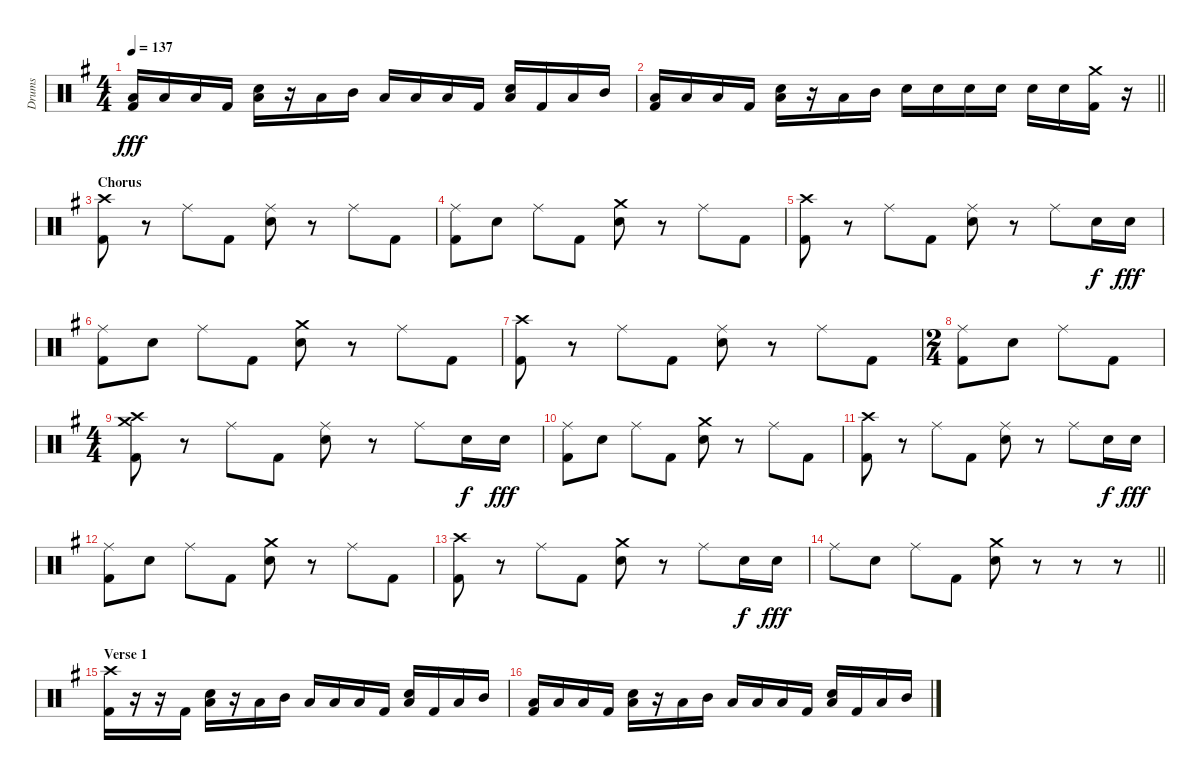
\track ("Drums" "Drums") {instrument percussion}
\staff {score}
\articulation defaults
\ts (4 4)
\tempo 137
\clef neutral
\ks eminor
("Low Floor Tom (hit)" "Kick (hit) 2").16{dy fff} "Low Tom (hit)".16 "Low Floor Tom (hit)".16 "Kick (hit) 2".16 ("Electric Snare (hit)" "Low Floor Tom (hit)").16 r.16 "Low Floor Tom (hit)".16 "Mid Tom (hit)".16 "Low Floor Tom (hit)".16 "Low Tom (hit)".16 "Low Floor Tom (hit)".16 "Kick (hit) 2".16 ("Electric Snare (hit)" "Low Floor Tom (hit)").16 "Kick (hit) 2".16 "Low Floor Tom (hit)".16 "Mid Tom (hit)".16 |
\barLineRight lightlight
("Low Floor Tom (hit)" "Kick (hit) 2").16 "Low Tom (hit)".16 "Low Floor Tom (hit)".16 "Kick (hit) 2".16 ("Electric Snare (hit)" "Low Floor Tom (hit)").16 r.16 "Low Floor Tom (hit)".16 "Mid Tom (hit)".16 "Electric Snare (hit)".16 "Electric Snare (hit)".16 "Electric Snare (hit)".16 "Electric Snare (hit)".16 "Electric Snare (hit)".16 "Electric Snare (hit)".16 ("Crash medium (hit)" "Kick (hit) 2").16 r.16 |
\section ("" "Chorus")
("Crash high (hit)" "Kick (hit) 2").8 r.8 "Ride (middle)".8 "Kick (hit) 2".8 ("Ride (middle)" "Electric Snare (hit)").8 r.8 "Ride (middle)".8 "Kick (hit) 2".8 |
("Ride (middle)" "Kick (hit) 2").8 "Electric Snare (hit)".8 "Ride (middle)".8 "Kick (hit) 2".8 ("Crash medium (hit)" "Electric Snare (hit)").8 r.8 "Ride (middle)".8 "Kick (hit) 2".8 |
("Crash high (hit)" "Kick (hit) 2").8 r.8 "Ride (middle)".8 "Kick (hit) 2".8 ("Ride (middle)" "Electric Snare (hit)").8 r.8 "Ride (middle)".8 "Electric Snare (hit)".16{dy f} "Electric Snare (hit)".16{dy fff} |
("Ride (middle)" "Kick (hit) 2").8 "Electric Snare (hit)".8 "Ride (middle)".8 "Kick (hit) 2".8 ("Crash medium (hit)" "Electric Snare (hit)").8 r.8 "Ride (middle)".8 "Kick (hit) 2".8 |
("Crash high (hit)" "Kick (hit) 2").8 r.8 "Ride (middle)".8 "Kick (hit) 2".8 ("Ride (middle)" "Electric Snare (hit)").8 r.8 "Ride (middle)".8 "Kick (hit) 2".8 |
\ts (2 4)
("Ride (middle)" "Kick (hit) 2").8 "Electric Snare (hit)".8 "Ride (middle)".8 "Kick (hit) 2".8 |
\ts (4 4)
("Crash medium (hit)" "Crash high (hit)" "Kick (hit) 2").8 r.8 "Ride (middle)".8 "Kick (hit) 2".8 ("Ride (middle)" "Electric Snare (hit)").8 r.8 "Ride (middle)".8 "Electric Snare (hit)".16{dy f} "Electric Snare (hit)".16{dy fff} |
("Ride (middle)" "Kick (hit) 2").8 "Electric Snare (hit)".8 "Ride (middle)".8 "Kick (hit) 2".8 ("Crash medium (hit)" "Electric Snare (hit)").8 r.8 "Ride (middle)".8 "Kick (hit) 2".8 |
("Crash high (hit)" "Kick (hit) 2").8 r.8 "Ride (middle)".8 "Kick (hit) 2".8 ("Ride (middle)" "Electric Snare (hit)").8 r.8 "Ride (middle)".8 "Electric Snare (hit)".16{dy f} "Electric Snare (hit)".16{dy fff} |
("Ride (middle)" "Kick (hit) 2").8 "Electric Snare (hit)".8 "Ride (middle)".8 "Kick (hit) 2".8 ("Crash medium (hit)" "Electric Snare (hit)").8 r.8 "Ride (middle)".8 "Kick (hit) 2".8 |
("Crash high (hit)" "Kick (hit) 2").8 r.8 "Ride (middle)".8 "Kick (hit) 2".8 ("Crash medium (hit)" "Electric Snare (hit)").8 r.8 "Ride (middle)".8 "Electric Snare (hit)".16{dy f} "Electric Snare (hit)".16{dy fff} |
\barLineRight lightlight "Ride (middle)".8 "Electric Snare (hit)".8 "Ride (middle)".8 "Kick (hit) 2".8
("Crash medium (hit)" "Electric Snare (hit)").8 r.8 r.8 r.8 |
\section ("" "Verse 1")
("Crash high (hit)" "Kick (hit) 2").16 r.16 r.16 "Kick (hit) 2".16 ("Electric Snare (hit)" "Low Floor Tom (hit)").16 r.16 "Low Floor Tom (hit)".16 "Mid Tom (hit)".16 "Low Floor Tom (hit)".16 "Low Tom (hit)".16 "Low Floor Tom (hit)".16 "Kick (hit) 2".16 ("Electric Snare (hit)" "Low Floor Tom (hit)").16 "Kick (hit) 2".16 "Low Floor Tom (hit)".16 "Mid Tom (hit)".16 |
("Low Floor Tom (hit)" "Kick (hit) 2").16 "Low Tom (hit)".16 "Low Floor Tom (hit)".16 "Kick (hit) 2".16 ("Electric Snare (hit)" "Low Floor Tom (hit)").16 r.16 "Low Floor Tom (hit)".16 "Mid Tom (hit)".16 "Low Floor Tom (hit)".16 "Low Tom (hit)".16 "Low Floor Tom (hit)".16 "Kick (hit) 2".16 ("Electric Snare (hit)" "Low Floor Tom (hit)").16 "Kick (hit) 2".16 "Low Floor Tom (hit)".16 "Mid Tom (hit)".16
